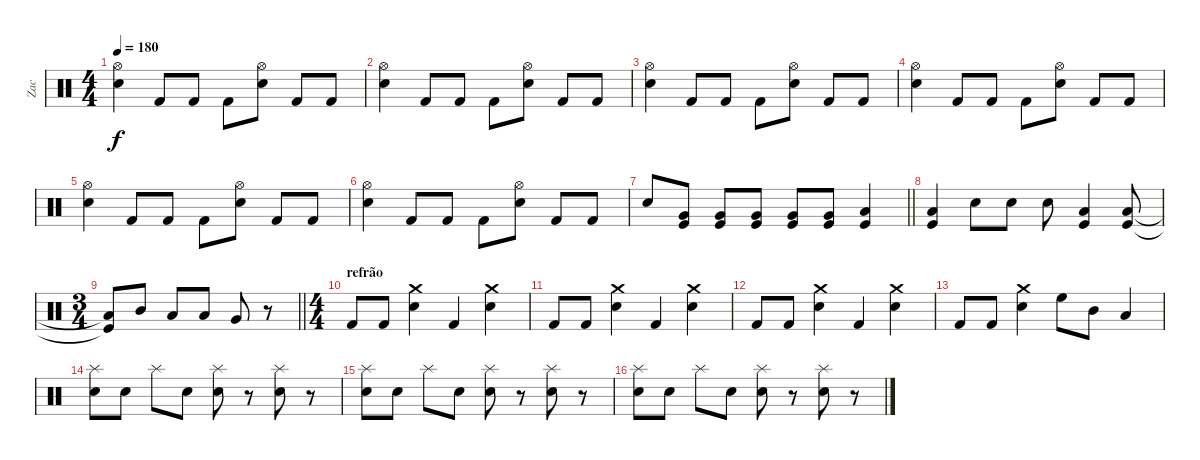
\track ("Zac" "Zac") {instrument percussion}
\staff {score}
\articulation defaults
\ts (4 4)
\tempo 180
\clef neutral
\ks c
("Hi-Hat (open)" "Electric Snare (hit)").4{dy f} "Kick (hit) 2".8 "Kick (hit) 2".8 "Kick (hit) 2".8 ("Hi-Hat (open)" "Electric Snare (hit)").8 "Kick (hit) 2".8 "Kick (hit) 2".8 |
("Hi-Hat (open)" "Electric Snare (hit)").4 "Kick (hit) 2".8 "Kick (hit) 2".8 "Kick (hit) 2".8 ("Hi-Hat (open)" "Electric Snare (hit)").8 "Kick (hit) 2".8 "Kick (hit) 2".8 |
("Hi-Hat (open)" "Electric Snare (hit)").4 "Kick (hit) 2".8 "Kick (hit) 2".8 "Kick (hit) 2".8 ("Hi-Hat (open)" "Electric Snare (hit)").8 "Kick (hit) 2".8 "Kick (hit) 2".8 |
("Hi-Hat (open)" "Electric Snare (hit)").4 "Kick (hit) 2".8 "Kick (hit) 2".8 "Kick (hit) 2".8 ("Hi-Hat (open)" "Electric Snare (hit)").8 "Kick (hit) 2".8 "Kick (hit) 2".8 |
("Hi-Hat (open)" "Electric Snare (hit)").4 "Kick (hit) 2".8 "Kick (hit) 2".8 "Kick (hit) 2".8 ("Hi-Hat (open)" "Electric Snare (hit)").8 "Kick (hit) 2".8 "Kick (hit) 2".8 |
("Hi-Hat (open)" "Electric Snare (hit)").4 "Kick (hit) 2".8 "Kick (hit) 2".8 "Kick (hit) 2".8 ("Hi-Hat (open)" "Electric Snare (hit)").8 "Kick (hit) 2".8 "Kick (hit) 2".8 |
\barLineRight lightlight "Electric Snare (hit)".8
("Kick (hit)" "Very Low Tom (hit)").8 ("Kick (hit)" "Very Low Tom (hit)").8 ("Kick (hit)" "Very Low Tom (hit)").8 ("Kick (hit)" "Very Low Tom (hit)").8 ("Kick (hit)" "Very Low Tom (hit)").8 ("Low Floor Tom (hit)" "Kick (hit)").4 |
("Low Floor Tom (hit)" "Kick (hit)").4 "Electric Snare (hit)".8 "Electric Snare (hit)".8 "Electric Snare (hit)".8 ("Low Floor Tom (hit)" "Kick (hit)").4 ("Low Floor Tom (hit)" "Kick (hit)").8 |
\ts (3 4)
\barLineRight lightlight
("Low Floor Tom (hit)"{t} "Kick (hit)"{t}).8 "Mid Tom (hit)".8 "Low Floor Tom (hit)".8 "Low Floor Tom (hit)".8 "Very Low Tom (hit)".8 r.8 |
\ts (4 4)
\section ("" "refrão")
"Kick (hit) 2".8 "Kick (hit) 2".8 ("Crash medium (hit)" "Electric Snare (hit)").4 "Kick (hit) 2".4 ("Crash medium (hit)" "Electric Snare (hit)").4 |
"Kick (hit) 2".8 "Kick (hit) 2".8 ("Crash medium (hit)" "Electric Snare (hit)").4 "Kick (hit) 2".4 ("Crash medium (hit)" "Electric Snare (hit)").4 |
"Kick (hit) 2".8 "Kick (hit) 2".8 ("Crash medium (hit)" "Electric Snare (hit)").4 "Kick (hit) 2".4 ("Crash medium (hit)" "Electric Snare (hit)").4 |
"Kick (hit) 2".8 "Kick (hit) 2".8 ("Crash medium (hit)" "Electric Snare (hit)").4 "High Floor Tom (hit)".8 "Mid Tom (hit)".8 "Low Tom (hit)".4 |
("Electric Snare (hit)" "Splash (hit)").8 "Electric Snare (hit)".8 "Splash (hit)".8 "Electric Snare (hit)".8 ("Electric Snare (hit)" "Splash (hit)").8 r.8 ("Electric Snare (hit)" "Splash (hit)").8 r.8 |
("Electric Snare (hit)" "Splash (hit)").8 "Electric Snare (hit)".8 "Splash (hit)".8 "Electric Snare (hit)".8 ("Electric Snare (hit)" "Splash (hit)").8 r.8 ("Electric Snare (hit)" "Splash (hit)").8 r.8 |
("Electric Snare (hit)" "Splash (hit)").8 "Electric Snare (hit)".8 "Splash (hit)".8 "Electric Snare (hit)".8 ("Electric Snare (hit)" "Splash (hit)").8 r.8 ("Electric Snare (hit)" "Splash (hit)").8 r.8
